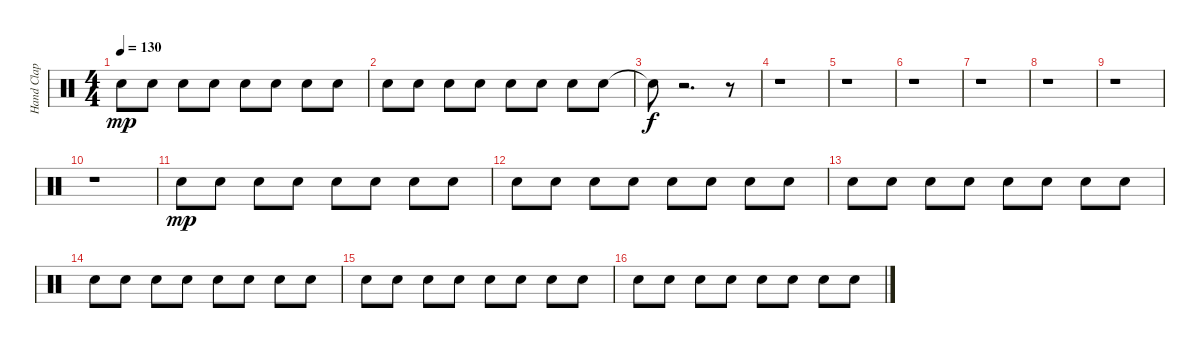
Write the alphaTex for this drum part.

\track ("Hand Clap" "Hand Clap") {instrument percussion}
\staff {score}
\articulation defaults
\ts (4 4)
\tempo 130
\clef neutral
\ks c "Hand Clap (hit)".8{dy mp} "Hand Clap (hit)".8 "Hand Clap (hit)".8 "Hand Clap (hit)".8 "Hand Clap (hit)".8 "Hand Clap (hit)".8 "Hand Clap (hit)".8 "Hand Clap (hit)".8
|
"Hand Clap (hit)".8 "Hand Clap (hit)".8 "Hand Clap (hit)".8 "Hand Clap (hit)".8 "Hand Clap (hit)".8 "Hand Clap (hit)".8 "Hand Clap (hit)".8 "Hand Clap (hit)".8 |
"Snare (hit)"{t}.8{dy f} r.2{d} r.8 |
r.1 |
r.1 |
r.1 |
r.1 |
r.1 |
r.1 |
r.1 |
"Hand Clap (hit)".8{dy mp} "Hand Clap (hit)".8 "Hand Clap (hit)".8 "Hand Clap (hit)".8 "Hand Clap (hit)".8 "Hand Clap (hit)".8 "Hand Clap (hit)".8 "Hand Clap (hit)".8 |
"Hand Clap (hit)".8 "Hand Clap (hit)".8 "Hand Clap (hit)".8 "Hand Clap (hit)".8 "Hand Clap (hit)".8 "Hand Clap (hit)".8 "Hand Clap (hit)".8 "Hand Clap (hit)".8 |
"Hand Clap (hit)".8 "Hand Clap (hit)".8 "Hand Clap (hit)".8 "Hand Clap (hit)".8 "Hand Clap (hit)".8 "Hand Clap (hit)".8 "Hand Clap (hit)".8 "Hand Clap (hit)".8 |
"Hand Clap (hit)".8 "Hand Clap (hit)".8 "Hand Clap (hit)".8 "Hand Clap (hit)".8 "Hand Clap (hit)".8 "Hand Clap (hit)".8 "Hand Clap (hit)".8 "Hand Clap (hit)".8 |
"Hand Clap (hit)".8 "Hand Clap (hit)".8 "Hand Clap (hit)".8 "Hand Clap (hit)".8 "Hand Clap (hit)".8 "Hand Clap (hit)".8 "Hand Clap (hit)".8 "Hand Clap (hit)".8 |
"Hand Clap (hit)".8 "Hand Clap (hit)".8 "Hand Clap (hit)".8 "Hand Clap (hit)".8 "Hand Clap (hit)".8 "Hand Clap (hit)".8 "Hand Clap (hit)".8 "Hand Clap (hit)".8
